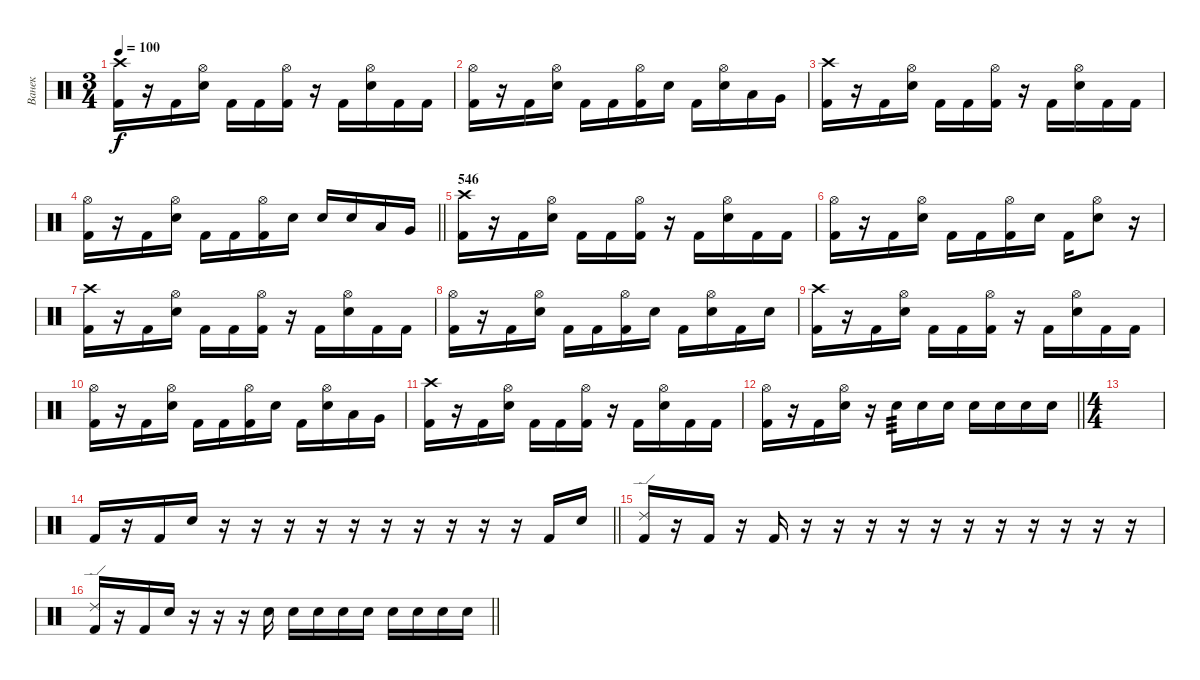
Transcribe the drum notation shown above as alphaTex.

\track ("Ванек" "Ванек") {instrument percussion}
\staff {score}
\articulation defaults
\ts (3 4)
\tempo 100
\clef neutral
\ks c
("Crash high (hit)" "Kick (hit) 2").16{dy f} r.16 "Kick (hit) 2".16 ("Hi-Hat (open)" "Snare (hit) 2").16 "Kick (hit) 2".16 "Kick (hit) 2".16 ("Hi-Hat (open)" "Kick (hit) 2").16 r.16 "Kick (hit) 2".16 ("Hi-Hat (open)" "Snare (hit) 2").16 "Kick (hit) 2".16 "Kick (hit) 2".16 |
("Hi-Hat (open)" "Kick (hit) 2").16 r.16 "Kick (hit) 2".16 ("Hi-Hat (open)" "Snare (hit) 2").16 "Kick (hit) 2".16 "Kick (hit) 2".16 ("Hi-Hat (open)" "Kick (hit) 2").16 "Snare (hit) 2".16 "Kick (hit) 2".16 ("Hi-Hat (open)" "Snare (hit) 2").16 "Low Floor Tom (hit)".16 "Very Low Tom (hit)".16 |
("Crash high (hit)" "Kick (hit) 2").16 r.16 "Kick (hit) 2".16 ("Hi-Hat (open)" "Snare (hit) 2").16 "Kick (hit) 2".16 "Kick (hit) 2".16 ("Hi-Hat (open)" "Kick (hit) 2").16 r.16 "Kick (hit) 2".16 ("Hi-Hat (open)" "Snare (hit) 2").16 "Kick (hit) 2".16 "Kick (hit) 2".16 |
\barLineRight lightlight
("Hi-Hat (open)" "Kick (hit) 2").16 r.16 "Kick (hit) 2".16 ("Hi-Hat (open)" "Snare (hit) 2").16 "Kick (hit) 2".16 "Kick (hit) 2".16 ("Hi-Hat (open)" "Kick (hit) 2").16 "Snare (hit) 2".16 "Snare (hit) 2".16 "Snare (hit) 2".16 "Low Floor Tom (hit)".16 "Very Low Tom (hit)".16 |
\section ("" "546")
("Crash high (hit)" "Kick (hit) 2").16 r.16 "Kick (hit) 2".16 ("Hi-Hat (open)" "Snare (hit) 2").16 "Kick (hit) 2".16 "Kick (hit) 2".16 ("Hi-Hat (open)" "Kick (hit) 2").16 r.16 "Kick (hit) 2".16 ("Hi-Hat (open)" "Snare (hit) 2").16 "Kick (hit) 2".16 "Kick (hit) 2".16 |
("Hi-Hat (open)" "Kick (hit) 2").16 r.16 "Kick (hit) 2".16 ("Hi-Hat (open)" "Snare (hit) 2").16 "Kick (hit) 2".16 "Kick (hit) 2".16 ("Hi-Hat (open)" "Kick (hit) 2").16 "Snare (hit) 2".16 "Kick (hit) 2".16 ("Hi-Hat (open)" "Snare (hit) 2").8 r.16 |
("Crash high (hit)" "Kick (hit) 2").16 r.16 "Kick (hit) 2".16 ("Hi-Hat (open)" "Snare (hit) 2").16 "Kick (hit) 2".16 "Kick (hit) 2".16 ("Hi-Hat (open)" "Kick (hit) 2").16 r.16 "Kick (hit) 2".16 ("Hi-Hat (open)" "Snare (hit) 2").16 "Kick (hit) 2".16 "Kick (hit) 2".16 |
("Hi-Hat (open)" "Kick (hit) 2").16 r.16 "Kick (hit) 2".16 ("Hi-Hat (open)" "Snare (hit) 2").16 "Kick (hit) 2".16 "Kick (hit) 2".16 ("Hi-Hat (open)" "Kick (hit) 2").16 "Snare (hit) 2".16 "Kick (hit) 2".16 ("Hi-Hat (open)" "Snare (hit) 2").16 "Kick (hit) 2".16 "Snare (hit) 2".16 |
("Crash high (hit)" "Kick (hit) 2").16 r.16 "Kick (hit) 2".16 ("Hi-Hat (open)" "Snare (hit) 2").16 "Kick (hit) 2".16 "Kick (hit) 2".16 ("Hi-Hat (open)" "Kick (hit) 2").16 r.16 "Kick (hit) 2".16 ("Hi-Hat (open)" "Snare (hit) 2").16 "Kick (hit) 2".16 "Kick (hit) 2".16 |
("Hi-Hat (open)" "Kick (hit) 2").16 r.16 "Kick (hit) 2".16 ("Hi-Hat (open)" "Snare (hit) 2").16 "Kick (hit) 2".16 "Kick (hit) 2".16 ("Hi-Hat (open)" "Kick (hit) 2").16 "Snare (hit) 2".16 "Kick (hit) 2".16 ("Hi-Hat (open)" "Snare (hit) 2").16 "Low Floor Tom (hit)".16 "Very Low Tom (hit)".16 |
("Crash high (hit)" "Kick (hit) 2").16 r.16 "Kick (hit) 2".16 ("Hi-Hat (open)" "Snare (hit) 2").16 "Kick (hit) 2".16 "Kick (hit) 2".16 ("Hi-Hat (open)" "Kick (hit) 2").16 r.16 "Kick (hit) 2".16 ("Hi-Hat (open)" "Snare (hit) 2").16 "Kick (hit) 2".16 "Kick (hit) 2".16 |
\barLineRight lightlight
("Hi-Hat (open)" "Kick (hit) 2").16 r.16 "Kick (hit) 2".16 ("Hi-Hat (open)" "Snare (hit) 2").16 r.16 "Snare (hit) 2".16{tp 3} "Snare (hit) 2".16 "Snare (hit) 2".16 "Snare (hit) 2".16 "Snare (hit) 2".16 "Snare (hit) 2".16 "Snare (hit) 2".16 |
\ts (4 4)
|
\barLineRight lightlight "Kick (hit) 2".16
r.16 "Kick (hit) 2".16 "Snare (hit) 2".16 r.16 r.16 r.16 r.16 r.16 r.16 r.16 r.16 r.16 r.16 "Kick (hit) 2".16 "Snare (hit) 2".16 |
("Ride (edge) 2" "Kick (hit) 2").16 r.16 "Kick (hit) 2".16 r.16 "Kick (hit) 2".16 r.16 r.16 r.16 r.16 r.16 r.16 r.16 r.16 r.16 r.16 r.16 |
\barLineRight lightlight
("Ride (edge) 2" "Kick (hit) 2").16 r.16 "Kick (hit) 2".16 "Snare (hit) 2".16 r.16 r.16 r.16 "Snare (hit) 2".16 "Snare (hit) 2".16 "Snare (hit) 2".16 "Snare (hit) 2".16 "Snare (hit) 2".16 "Snare (hit) 2".16 "Snare (hit) 2".16 "Snare (hit) 2".16 "Snare (hit) 2".16
